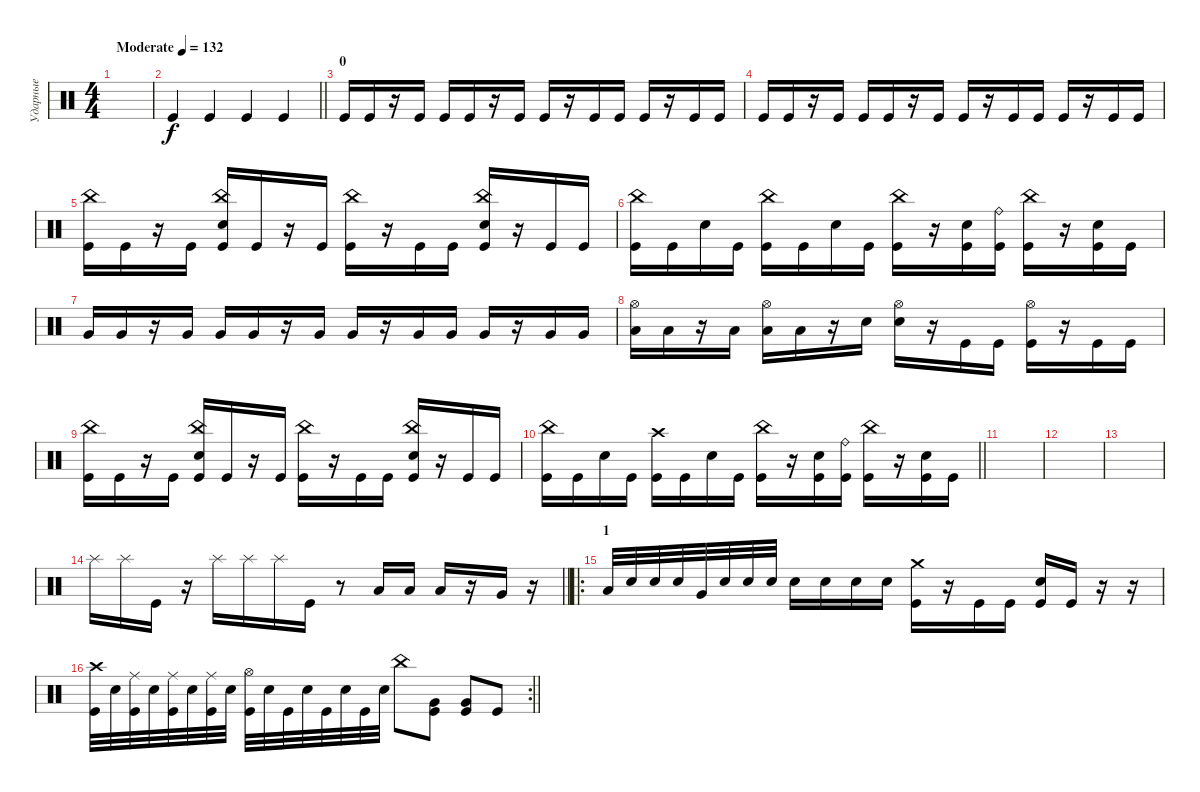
\track ("Ударные" "Ударные") {instrument percussion}
\staff {score}
\articulation defaults
\ts (4 4)
\tempo (132 "Moderate")
\clef neutral
\ks c
|
\barLineRight lightlight "Kick (hit)".4 "Kick (hit)".4 "Kick (hit)".4 "Kick (hit)".4
|
\section ("" "0")
"Kick (hit)".16 "Kick (hit)".16 r.16 "Kick (hit)".16 "Kick (hit)".16 "Kick (hit)".16 r.16 "Kick (hit)".16 "Kick (hit)".16 r.16 "Kick (hit)".16 "Kick (hit)".16 "Kick (hit)".16 r.16 "Kick (hit)".16 "Kick (hit)".16 |
"Kick (hit)".16 "Kick (hit)".16 r.16 "Kick (hit)".16 "Kick (hit)".16 "Kick (hit)".16 r.16 "Kick (hit)".16 "Kick (hit)".16 r.16 "Kick (hit)".16 "Kick (hit)".16 "Kick (hit)".16 r.16 "Kick (hit)".16 "Kick (hit)".16 |
("China (hit)" "Kick (hit)").16 "Kick (hit)".16 r.16 "Kick (hit)".16 ("China (hit)" "Electric Snare (hit)" "Kick (hit)").16 "Kick (hit)".16 r.16 "Kick (hit)".16 ("China (hit)" "Kick (hit)").16 r.16 "Kick (hit)".16 "Kick (hit)".16 ("China (hit)" "Electric Snare (hit)" "Kick (hit)").16 r.16 "Kick (hit)".16 "Kick (hit)".16 |
("China (hit)" "Kick (hit)").16 "Kick (hit)".16 "Electric Snare (hit)".16 "Kick (hit)".16 ("China (hit)" "Kick (hit)").16 "Kick (hit)".16 "Electric Snare (hit)".16 "Kick (hit)".16 ("China (hit)" "Kick (hit)").16 r.16 ("Electric Snare (hit)" "Kick (hit)").16 ("Ride (bell)" "Kick (hit)").16 ("China (hit)" "Kick (hit)").16 r.16 ("Electric Snare (hit)" "Kick (hit)").16 "Kick (hit)".16 |
"Very Low Tom (hit)".16 "Very Low Tom (hit)".16 r.16 "Very Low Tom (hit)".16 "Very Low Tom (hit)".16 "Very Low Tom (hit)".16 r.16 "Very Low Tom (hit)".16 "Very Low Tom (hit)".16 r.16 "Very Low Tom (hit)".16 "Very Low Tom (hit)".16 "Very Low Tom (hit)".16 r.16 "Very Low Tom (hit)".16 "Very Low Tom (hit)".16 |
("Hi-Hat (open)" "Low Floor Tom (hit)").16 "Low Floor Tom (hit)".16 r.16 "Low Floor Tom (hit)".16 ("Hi-Hat (open)" "Low Floor Tom (hit)").16 "Low Floor Tom (hit)".16 r.16 "Electric Snare (hit)".16 ("Hi-Hat (open)" "Electric Snare (hit)").16 r.16 "Kick (hit)".16 "Kick (hit)".16 ("Hi-Hat (open)" "Kick (hit)").16 r.16 "Kick (hit)".16 "Kick (hit)".16 |
("China (hit)" "Kick (hit)").16 "Kick (hit)".16 r.16 "Kick (hit)".16 ("China (hit)" "Electric Snare (hit)" "Kick (hit)").16 "Kick (hit)".16 r.16 "Kick (hit)".16 ("China (hit)" "Kick (hit)").16 r.16 "Kick (hit)".16 "Kick (hit)".16 ("China (hit)" "Electric Snare (hit)" "Kick (hit)").16 r.16 "Kick (hit)".16 "Kick (hit)".16 |
\barLineRight lightlight
("China (hit)" "Kick (hit)").16 "Kick (hit)".16 "Electric Snare (hit)".16 "Kick (hit)".16 ("Crash high (hit)" "Kick (hit)").16 "Kick (hit)".16 "Electric Snare (hit)".16 "Kick (hit)".16 ("China (hit)" "Kick (hit)").16 r.16 ("Electric Snare (hit)" "Kick (hit)").16 ("Ride (bell)" "Kick (hit)").16 ("China (hit)" "Kick (hit)").16 r.16 ("Electric Snare (hit)" "Kick (hit)").16 "Kick (hit)".16 |
\section ("" " ")
|
|
|
\barLineRight lightlight "Splash (hit)".16 "Splash (hit)".16 "Kick (hit)".16
r.16 "Splash (hit)".16 "Splash (hit)".16 "Splash (hit)".16 "Kick (hit)".16 r.8 "Low Tom (hit)".16 "Low Tom (hit)".16 "Low Tom (hit)".16 r.16 "Very Low Tom (hit)".16 r.16 |
\ro
\section ("" "1")
"Low Tom (hit)".32 "Electric Snare (hit)".32 "Electric Snare (hit)".32 "Electric Snare (hit)".32 "Very Low Tom (hit)".32 "Electric Snare (hit)".32 "Electric Snare (hit)".32 "Electric Snare (hit)".32 "Electric Snare (hit)".16 "Electric Snare (hit)".16 "Electric Snare (hit)".16 "Electric Snare (hit)".16 ("Crash medium (hit)" "Kick (hit)").16 r.16 "Kick (hit)".16 "Kick (hit)".16 ("Electric Snare (hit)" "Kick (hit)").16 "Kick (hit)".16 r.16 r.16 |
\rc 2
\barLineRight lightlight
("Crash high (hit)" "Kick (hit)").32 "Electric Snare (hit)".32 ("Ride (middle)" "Kick (hit)").32 "Electric Snare (hit)".32 ("Ride (middle)" "Kick (hit)").32 "Electric Snare (hit)".32 ("Ride (middle)" "Kick (hit)").32 "Electric Snare (hit)".32 ("Hi-Hat (open)" "Kick (hit)").32 "Electric Snare (hit)".32 "Kick (hit)".32 "Electric Snare (hit)".32 "Kick (hit)".32 "Electric Snare (hit)".32 "Kick (hit)".32 "Electric Snare (hit)".32 "China (hit)".8 ("Very Low Tom (hit)" "Kick (hit)").8 ("Very Low Tom (hit)" "Kick (hit)").8 "Kick (hit)".8
